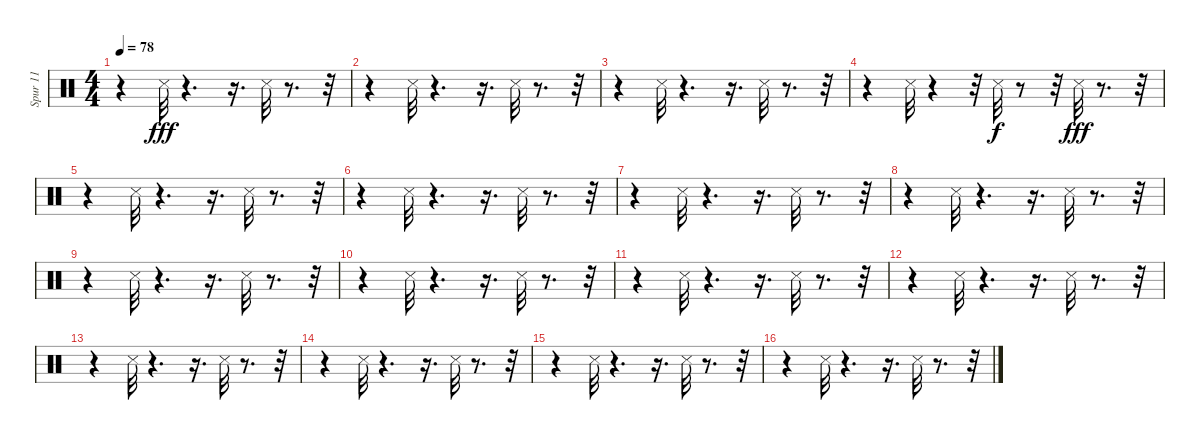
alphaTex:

\track ("Spur 11" "Spur 11") {instrument percussion}
\staff {score}
\articulation defaults
\ts (4 4)
\tempo 78
\clef neutral
\ks c
r.4{dy fff} "Snare (side stick) 3".32 r.4{d} r.16{d} "Snare (side stick) 3".32 r.8{d} r.32 |
r.4 "Snare (side stick) 3".32 r.4{d} r.16{d} "Snare (side stick) 3".32 r.8{d} r.32 |
r.4 "Snare (side stick) 3".32 r.4{d} r.16{d} "Snare (side stick) 3".32 r.8{d} r.32 |
r.4 "Snare (side stick) 3".32 r.4 r.32 "Snare (side stick) 3".32{dy f} r.8 r.32 "Snare (side stick) 3".32{dy fff} r.8{d} r.32 |
r.4 "Snare (side stick) 3".32 r.4{d} r.16{d} "Snare (side stick) 3".32 r.8{d} r.32 |
r.4 "Snare (side stick) 3".32 r.4{d} r.16{d} "Snare (side stick) 3".32 r.8{d} r.32 |
r.4 "Snare (side stick) 3".32 r.4{d} r.16{d} "Snare (side stick) 3".32 r.8{d} r.32 |
r.4 "Snare (side stick) 3".32 r.4{d} r.16{d} "Snare (side stick) 3".32 r.8{d} r.32 |
r.4 "Snare (side stick) 3".32 r.4{d} r.16{d} "Snare (side stick) 3".32 r.8{d} r.32 |
r.4 "Snare (side stick) 3".32 r.4{d} r.16{d} "Snare (side stick) 3".32 r.8{d} r.32 |
r.4 "Snare (side stick) 3".32 r.4{d} r.16{d} "Snare (side stick) 3".32 r.8{d} r.32 |
r.4 "Snare (side stick) 3".32 r.4{d} r.16{d} "Snare (side stick) 3".32 r.8{d} r.32 |
r.4 "Snare (side stick) 3".32 r.4{d} r.16{d} "Snare (side stick) 3".32 r.8{d} r.32 |
r.4 "Snare (side stick) 3".32 r.4{d} r.16{d} "Snare (side stick) 3".32 r.8{d} r.32 |
r.4 "Snare (side stick) 3".32 r.4{d} r.16{d} "Snare (side stick) 3".32 r.8{d} r.32 |
r.4 "Snare (side stick) 3".32 r.4{d} r.16{d} "Snare (side stick) 3".32 r.8{d} r.32
